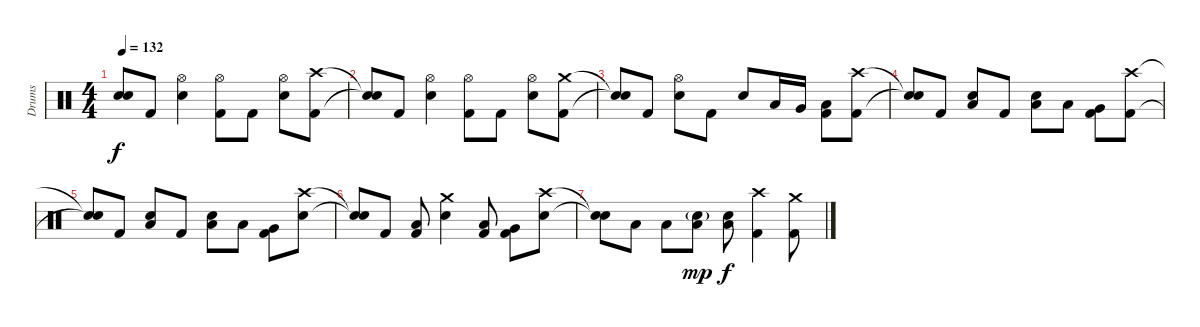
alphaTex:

\track ("Drums" "Drums") {instrument percussion}
\staff {score}
\articulation defaults
\ts (4 4)
\tempo 132
\clef neutral
\ks c
("Snare (hit)"{t} "Snare (hit)"{t}).8{dy f} "Kick (hit) 2".8 ("Hi-Hat (open)" "Electric Snare (hit)").4 ("Hi-Hat (open)" "Kick (hit) 2").8 "Kick (hit) 2".8 ("Hi-Hat (open)" "Electric Snare (hit)").8 ("Crash high (hit)" "Kick (hit) 2").8 |
("Snare (hit)"{t} "Snare (hit)"{t}).8 "Kick (hit) 2".8 ("Hi-Hat (open)" "Electric Snare (hit)").4 ("Hi-Hat (open)" "Kick (hit) 2").8 "Kick (hit) 2".8 ("Hi-Hat (open)" "Electric Snare (hit)").8 ("Crash medium (hit)" "Kick (hit) 2").8 |
("Snare (hit)"{t} "Snare (hit)"{t}).8 "Kick (hit) 2".8 ("Hi-Hat (open)" "Electric Snare (hit)").8 "Kick (hit) 2".8 "Electric Snare (hit)".8 "Low Tom (hit)".16 "Very Low Tom (hit)".16 ("Low Floor Tom (hit)" "Kick (hit) 2").8 ("Crash high (hit)" "Kick (hit) 2").8 |
("Snare (hit)"{t} "Snare (hit)"{t}).8 "Kick (hit) 2".8 ("Low Floor Tom (hit)" "Electric Snare (hit)").8 "Kick (hit) 2".8 ("Low Floor Tom (hit)" "Electric Snare (hit)").8 "Low Tom (hit)".8 ("Very Low Tom (hit)" "Kick (hit) 2").8 ("Crash high (hit)" "Kick (hit) 2").8 |
("Snare (hit)"{t} "Snare (hit)"{t}).8 "Kick (hit) 2".8 ("Low Floor Tom (hit)" "Electric Snare (hit)").8 "Kick (hit) 2".8 ("Low Floor Tom (hit)" "Electric Snare (hit)").8 "Low Tom (hit)".8 ("Very Low Tom (hit)" "Kick (hit) 2").8 ("Crash high (hit)" "Electric Snare (hit)").8 |
("Snare (hit)"{t} "Snare (hit)"{t}).8 "Kick (hit) 2".8 ("Low Floor Tom (hit)" "Kick (hit) 2").8 ("Crash medium (hit)" "Electric Snare (hit)").4 ("Low Floor Tom (hit)" "Kick (hit) 2").8 ("Very Low Tom (hit)" "Kick (hit) 2").8 ("Crash high (hit)" "Electric Snare (hit)").8 |
("Snare (hit)"{t} "Snare (hit)"{t}).8 "Low Floor Tom (hit)".8 "Low Floor Tom (hit)".8 ("Electric Snare (hit)"{g} "Low Floor Tom (hit)").8{dy mp} ("Electric Snare (hit)" "Low Floor Tom (hit)").8{dy f} ("Crash high (hit)" "Kick (hit) 2").4 ("Crash medium (hit)" "Kick (hit) 2").8
